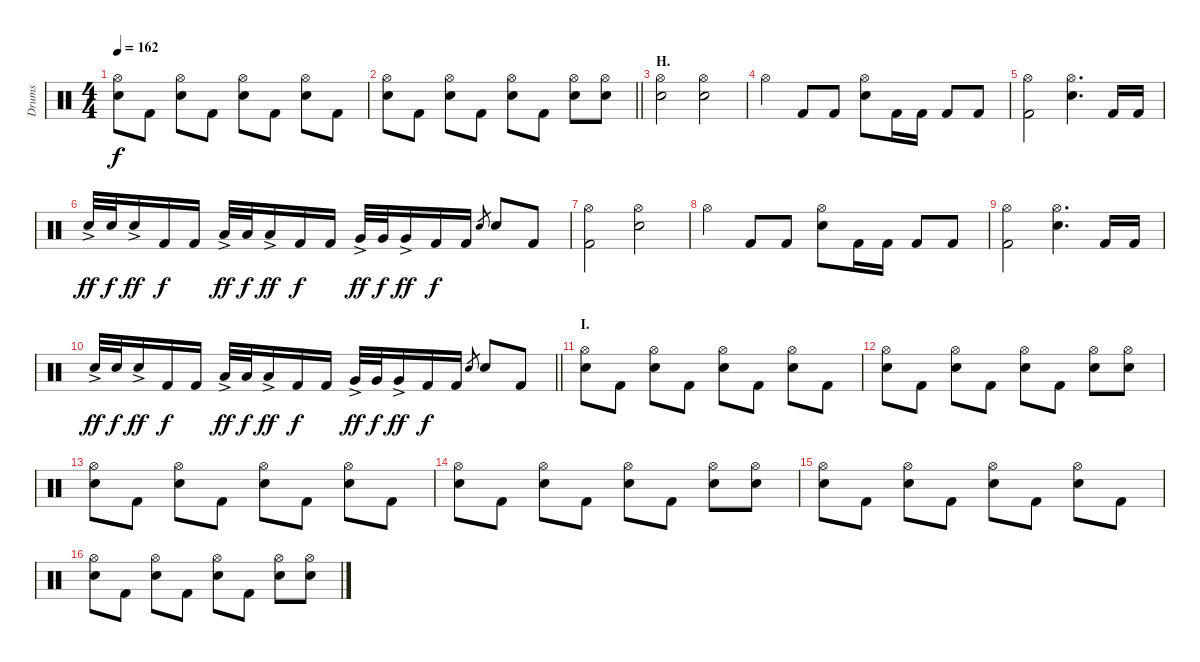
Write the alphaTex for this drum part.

\track ("Drums" "Drums") {instrument percussion}
\staff {score}
\articulation defaults
\ts (4 4)
\tempo 162
\clef neutral
\ks c
("Hi-Hat (open)" "Electric Snare (hit)").8{dy f} "Kick (hit) 2".8 ("Hi-Hat (open)" "Electric Snare (hit)").8 "Kick (hit) 2".8 ("Hi-Hat (open)" "Electric Snare (hit)").8 "Kick (hit) 2".8 ("Hi-Hat (open)" "Electric Snare (hit)").8 "Kick (hit) 2".8 |
\barLineRight lightlight
("Hi-Hat (open)" "Electric Snare (hit)").8 "Kick (hit) 2".8 ("Hi-Hat (open)" "Electric Snare (hit)").8 "Kick (hit) 2".8 ("Hi-Hat (open)" "Electric Snare (hit)").8 "Kick (hit) 2".8 ("Hi-Hat (open)" "Electric Snare (hit)").8 ("Hi-Hat (open)" "Electric Snare (hit)").8 |
\section ("" "H.")
("Hi-Hat (open)" "Electric Snare (hit)").2 ("Hi-Hat (open)" "Electric Snare (hit)").2 |
"Hi-Hat (open)".4 "Kick (hit) 2".8 "Kick (hit) 2".8 ("Hi-Hat (open)" "Electric Snare (hit)").8 "Kick (hit) 2".16 "Kick (hit) 2".16 "Kick (hit) 2".8 "Kick (hit) 2".8 |
("Hi-Hat (open)" "Kick (hit) 2").2 ("Hi-Hat (open)" "Electric Snare (hit)").4{d} "Kick (hit) 2".16 "Kick (hit) 2".16 |
"Electric Snare (hit)"{ac}.32{dy ff} "Electric Snare (hit)".32{dy f} "Electric Snare (hit)"{ac}.16{dy ff} "Kick (hit) 2".16{dy f} "Kick (hit) 2".16 "Low Tom (hit)"{ac}.32{dy ff} "Low Tom (hit)".32{dy f} "Low Tom (hit)"{ac}.16{dy ff} "Kick (hit) 2".16{dy f} "Kick (hit) 2".16 "Very Low Tom (hit)"{ac}.32{dy ff} "Very Low Tom (hit)".32{dy f} "Very Low Tom (hit)"{ac}.16{dy ff} "Kick (hit) 2".16{dy f} "Kick (hit) 2".16 "Electric Snare (hit)".8{gr} "Electric Snare (hit)".8 "Kick (hit) 2".8 |
("Hi-Hat (open)" "Kick (hit) 2").2 ("Hi-Hat (open)" "Electric Snare (hit)").2 |
"Hi-Hat (open)".4 "Kick (hit) 2".8 "Kick (hit) 2".8 ("Hi-Hat (open)" "Electric Snare (hit)").8 "Kick (hit) 2".16 "Kick (hit) 2".16 "Kick (hit) 2".8 "Kick (hit) 2".8 |
("Hi-Hat (open)" "Kick (hit) 2").2 ("Hi-Hat (open)" "Electric Snare (hit)").4{d} "Kick (hit) 2".16 "Kick (hit) 2".16 |
\barLineRight lightlight "Electric Snare (hit)"{ac}.32{dy ff} "Electric Snare (hit)".32{dy f} "Electric Snare (hit)"{ac}.16{dy ff} "Kick (hit) 2".16{dy f} "Kick (hit) 2".16 "Low Tom (hit)"{ac}.32{dy ff} "Low Tom (hit)".32{dy f} "Low Tom (hit)"{ac}.16{dy ff} "Kick (hit) 2".16{dy f} "Kick (hit) 2".16 "Very Low Tom (hit)"{ac}.32{dy ff} "Very Low Tom (hit)".32{dy f} "Very Low Tom (hit)"{ac}.16{dy ff} "Kick (hit) 2".16{dy f} "Kick (hit) 2".16 "Electric Snare (hit)".8{gr} "Electric Snare (hit)".8 "Kick (hit) 2".8
|
\section ("" "I.")
("Hi-Hat (open)" "Electric Snare (hit)").8 "Kick (hit) 2".8 ("Hi-Hat (open)" "Electric Snare (hit)").8 "Kick (hit) 2".8 ("Hi-Hat (open)" "Electric Snare (hit)").8 "Kick (hit) 2".8 ("Hi-Hat (open)" "Electric Snare (hit)").8 "Kick (hit) 2".8 |
("Hi-Hat (open)" "Electric Snare (hit)").8 "Kick (hit) 2".8 ("Hi-Hat (open)" "Electric Snare (hit)").8 "Kick (hit) 2".8 ("Hi-Hat (open)" "Electric Snare (hit)").8 "Kick (hit) 2".8 ("Hi-Hat (open)" "Electric Snare (hit)").8 ("Hi-Hat (open)" "Electric Snare (hit)").8 |
("Hi-Hat (open)" "Electric Snare (hit)").8 "Kick (hit) 2".8 ("Hi-Hat (open)" "Electric Snare (hit)").8 "Kick (hit) 2".8 ("Hi-Hat (open)" "Electric Snare (hit)").8 "Kick (hit) 2".8 ("Hi-Hat (open)" "Electric Snare (hit)").8 "Kick (hit) 2".8 |
("Hi-Hat (open)" "Electric Snare (hit)").8 "Kick (hit) 2".8 ("Hi-Hat (open)" "Electric Snare (hit)").8 "Kick (hit) 2".8 ("Hi-Hat (open)" "Electric Snare (hit)").8 "Kick (hit) 2".8 ("Hi-Hat (open)" "Electric Snare (hit)").8 ("Hi-Hat (open)" "Electric Snare (hit)").8 |
("Hi-Hat (open)" "Electric Snare (hit)").8 "Kick (hit) 2".8 ("Hi-Hat (open)" "Electric Snare (hit)").8 "Kick (hit) 2".8 ("Hi-Hat (open)" "Electric Snare (hit)").8 "Kick (hit) 2".8 ("Hi-Hat (open)" "Electric Snare (hit)").8 "Kick (hit) 2".8 |
("Hi-Hat (open)" "Electric Snare (hit)").8 "Kick (hit) 2".8 ("Hi-Hat (open)" "Electric Snare (hit)").8 "Kick (hit) 2".8 ("Hi-Hat (open)" "Electric Snare (hit)").8 "Kick (hit) 2".8 ("Hi-Hat (open)" "Electric Snare (hit)").8 ("Hi-Hat (open)" "Electric Snare (hit)").8
